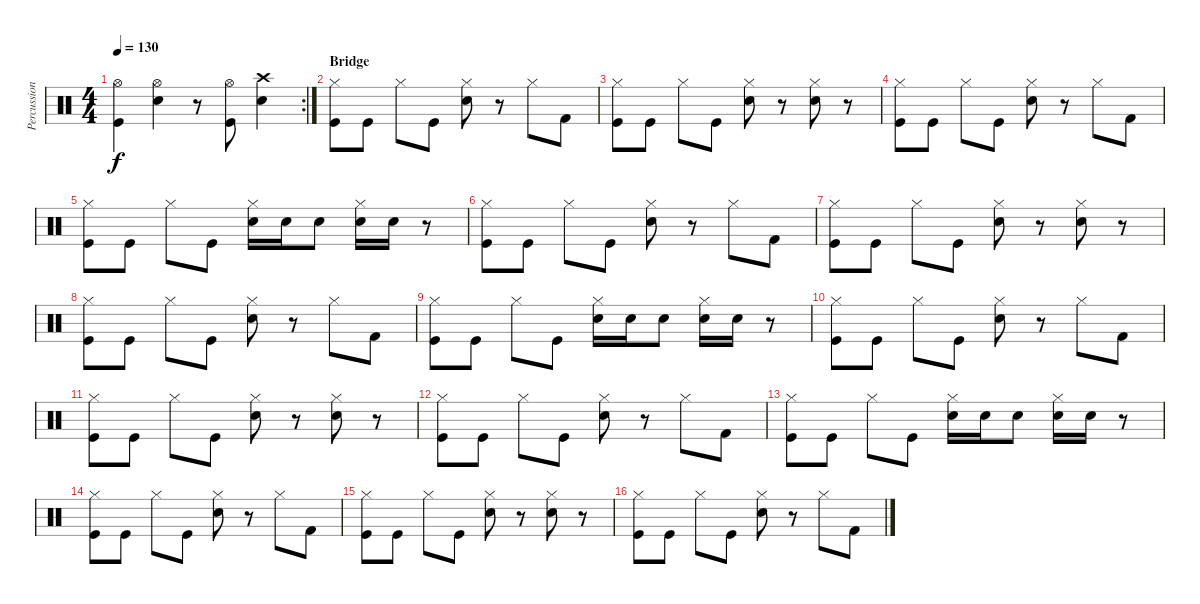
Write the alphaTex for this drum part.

\track ("Percussion" "Percussion") {instrument percussion}
\staff {score}
\articulation defaults
\rc 2
\ts (4 4)
\tempo 130
\clef neutral
\ks c
("Hi-Hat (open)" "Kick (hit)").4{dy f} ("Hi-Hat (open)" "Snare (hit) 2").4 r.8 ("Hi-Hat (open)" "Kick (hit)").8 ("Crash high (hit)" "Snare (hit) 2").4 |
\section ("" "Bridge")
("Hi-Hat (closed)" "Kick (hit)").8 "Kick (hit)".8 "Hi-Hat (closed)".8 "Kick (hit)".8 ("Hi-Hat (closed)" "Snare (hit) 2").8 r.8 "Hi-Hat (closed)".8 "Kick (hit) 2".8 |
("Hi-Hat (closed)" "Kick (hit)").8 "Kick (hit)".8 "Hi-Hat (closed)".8 "Kick (hit)".8 ("Hi-Hat (closed)" "Snare (hit) 2").8 r.8 ("Hi-Hat (closed)" "Snare (hit) 2").8 r.8 |
("Hi-Hat (closed)" "Kick (hit)").8 "Kick (hit)".8 "Hi-Hat (closed)".8 "Kick (hit)".8 ("Hi-Hat (closed)" "Snare (hit) 2").8 r.8 "Hi-Hat (closed)".8 "Kick (hit) 2".8 |
("Hi-Hat (closed)" "Kick (hit)").8 "Kick (hit)".8 "Hi-Hat (closed)".8 "Kick (hit)".8 ("Hi-Hat (closed)" "Snare (hit) 2").16 "Snare (hit) 2".16 "Snare (hit) 2".8 ("Hi-Hat (closed)" "Snare (hit) 2").16 "Snare (hit) 2".16 r.8 |
("Hi-Hat (closed)" "Kick (hit)").8 "Kick (hit)".8 "Hi-Hat (closed)".8 "Kick (hit)".8 ("Hi-Hat (closed)" "Snare (hit) 2").8 r.8 "Hi-Hat (closed)".8 "Kick (hit) 2".8 |
("Hi-Hat (closed)" "Kick (hit)").8 "Kick (hit)".8 "Hi-Hat (closed)".8 "Kick (hit)".8 ("Hi-Hat (closed)" "Snare (hit) 2").8 r.8 ("Hi-Hat (closed)" "Snare (hit) 2").8 r.8 |
("Hi-Hat (closed)" "Kick (hit)").8 "Kick (hit)".8 "Hi-Hat (closed)".8 "Kick (hit)".8 ("Hi-Hat (closed)" "Snare (hit) 2").8 r.8 "Hi-Hat (closed)".8 "Kick (hit) 2".8 |
("Hi-Hat (closed)" "Kick (hit)").8 "Kick (hit)".8 "Hi-Hat (closed)".8 "Kick (hit)".8 ("Hi-Hat (closed)" "Snare (hit) 2").16 "Snare (hit) 2".16 "Snare (hit) 2".8 ("Hi-Hat (closed)" "Snare (hit) 2").16 "Snare (hit) 2".16 r.8 |
("Hi-Hat (closed)" "Kick (hit)").8 "Kick (hit)".8 "Hi-Hat (closed)".8 "Kick (hit)".8 ("Hi-Hat (closed)" "Snare (hit) 2").8 r.8 "Hi-Hat (closed)".8 "Kick (hit) 2".8 |
("Hi-Hat (closed)" "Kick (hit)").8 "Kick (hit)".8 "Hi-Hat (closed)".8 "Kick (hit)".8 ("Hi-Hat (closed)" "Snare (hit) 2").8 r.8 ("Hi-Hat (closed)" "Snare (hit) 2").8 r.8 |
("Hi-Hat (closed)" "Kick (hit)").8 "Kick (hit)".8 "Hi-Hat (closed)".8 "Kick (hit)".8 ("Hi-Hat (closed)" "Snare (hit) 2").8 r.8 "Hi-Hat (closed)".8 "Kick (hit) 2".8 |
("Hi-Hat (closed)" "Kick (hit)").8 "Kick (hit)".8 "Hi-Hat (closed)".8 "Kick (hit)".8 ("Hi-Hat (closed)" "Snare (hit) 2").16 "Snare (hit) 2".16 "Snare (hit) 2".8 ("Hi-Hat (closed)" "Snare (hit) 2").16 "Snare (hit) 2".16 r.8 |
("Hi-Hat (closed)" "Kick (hit)").8 "Kick (hit)".8 "Hi-Hat (closed)".8 "Kick (hit)".8 ("Hi-Hat (closed)" "Snare (hit) 2").8 r.8 "Hi-Hat (closed)".8 "Kick (hit) 2".8 |
("Hi-Hat (closed)" "Kick (hit)").8 "Kick (hit)".8 "Hi-Hat (closed)".8 "Kick (hit)".8 ("Hi-Hat (closed)" "Snare (hit) 2").8 r.8 ("Hi-Hat (closed)" "Snare (hit) 2").8 r.8 |
("Hi-Hat (closed)" "Kick (hit)").8 "Kick (hit)".8 "Hi-Hat (closed)".8 "Kick (hit)".8 ("Hi-Hat (closed)" "Snare (hit) 2").8 r.8 "Hi-Hat (closed)".8 "Kick (hit) 2".8
